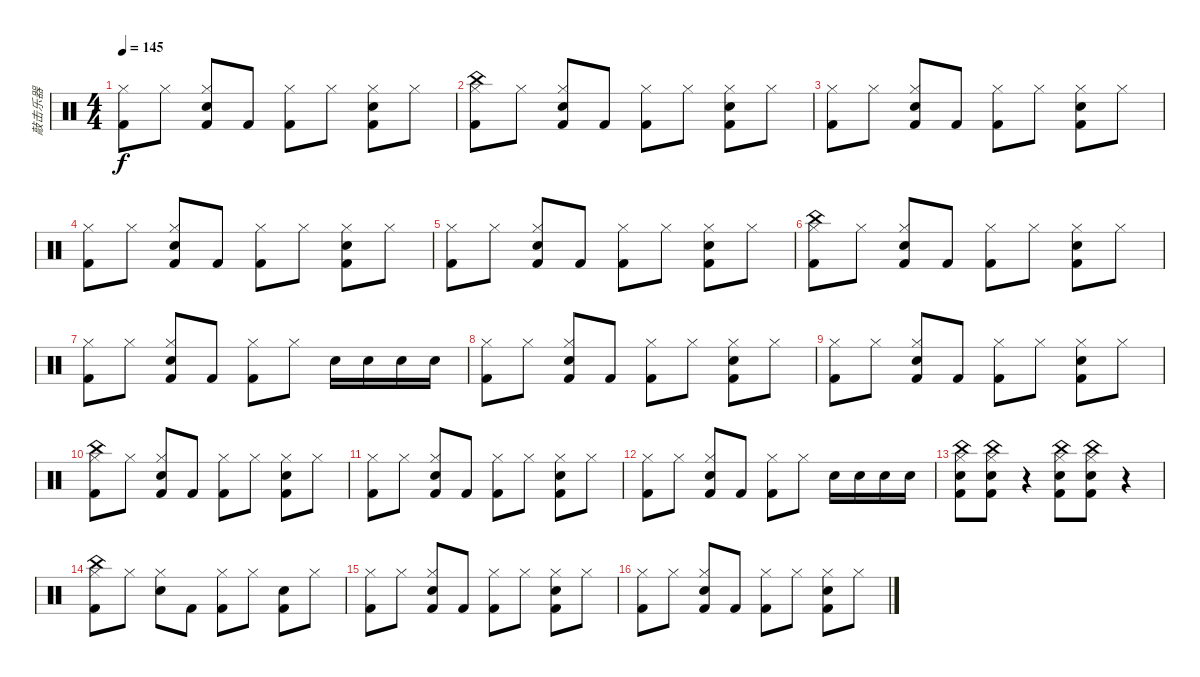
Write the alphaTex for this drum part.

\track ("敲击乐器" "敲击乐器") {instrument percussion}
\staff {score}
\articulation defaults
\ts (4 4)
\tempo 145
\clef neutral
\ks c
("Kick (hit) 2" "Hi-Hat (closed)").8{dy f} "Hi-Hat (closed)".8 ("Electric Snare (hit)" "Kick (hit) 2" "Hi-Hat (closed)").8 "Kick (hit) 2".8 ("Kick (hit) 2" "Hi-Hat (closed)").8 "Hi-Hat (closed)".8 ("Electric Snare (hit)" "Kick (hit) 2" "Hi-Hat (closed)").8 "Hi-Hat (closed)".8 |
("Kick (hit) 2" "Hi-Hat (closed)" "China (hit)").8 "Hi-Hat (closed)".8 ("Electric Snare (hit)" "Kick (hit) 2" "Hi-Hat (closed)").8 "Kick (hit) 2".8 ("Kick (hit) 2" "Hi-Hat (closed)").8 "Hi-Hat (closed)".8 ("Electric Snare (hit)" "Kick (hit) 2" "Hi-Hat (closed)").8 "Hi-Hat (closed)".8 |
("Kick (hit) 2" "Hi-Hat (closed)").8 "Hi-Hat (closed)".8 ("Electric Snare (hit)" "Kick (hit) 2" "Hi-Hat (closed)").8 "Kick (hit) 2".8 ("Kick (hit) 2" "Hi-Hat (closed)").8 "Hi-Hat (closed)".8 ("Electric Snare (hit)" "Kick (hit) 2" "Hi-Hat (closed)").8 "Hi-Hat (closed)".8 |
("Kick (hit) 2" "Hi-Hat (closed)").8 "Hi-Hat (closed)".8 ("Electric Snare (hit)" "Kick (hit) 2" "Hi-Hat (closed)").8 "Kick (hit) 2".8 ("Kick (hit) 2" "Hi-Hat (closed)").8 "Hi-Hat (closed)".8 ("Electric Snare (hit)" "Kick (hit) 2" "Hi-Hat (closed)").8 "Hi-Hat (closed)".8 |
("Kick (hit) 2" "Hi-Hat (closed)").8 "Hi-Hat (closed)".8 ("Electric Snare (hit)" "Kick (hit) 2" "Hi-Hat (closed)").8 "Kick (hit) 2".8 ("Kick (hit) 2" "Hi-Hat (closed)").8 "Hi-Hat (closed)".8 ("Electric Snare (hit)" "Kick (hit) 2" "Hi-Hat (closed)").8 "Hi-Hat (closed)".8 |
("Kick (hit) 2" "Hi-Hat (closed)" "China (hit)").8 "Hi-Hat (closed)".8 ("Electric Snare (hit)" "Kick (hit) 2" "Hi-Hat (closed)").8 "Kick (hit) 2".8 ("Kick (hit) 2" "Hi-Hat (closed)").8 "Hi-Hat (closed)".8 ("Electric Snare (hit)" "Kick (hit) 2" "Hi-Hat (closed)").8 "Hi-Hat (closed)".8 |
("Kick (hit) 2" "Hi-Hat (closed)").8 "Hi-Hat (closed)".8 ("Electric Snare (hit)" "Kick (hit) 2" "Hi-Hat (closed)").8 "Kick (hit) 2".8 ("Kick (hit) 2" "Hi-Hat (closed)").8 "Hi-Hat (closed)".8 "Electric Snare (hit)".16 "Electric Snare (hit)".16 "Electric Snare (hit)".16 "Electric Snare (hit)".16 |
("Kick (hit) 2" "Hi-Hat (closed)").8 "Hi-Hat (closed)".8 ("Electric Snare (hit)" "Kick (hit) 2" "Hi-Hat (closed)").8 "Kick (hit) 2".8 ("Kick (hit) 2" "Hi-Hat (closed)").8 "Hi-Hat (closed)".8 ("Electric Snare (hit)" "Kick (hit) 2" "Hi-Hat (closed)").8 "Hi-Hat (closed)".8 |
("Kick (hit) 2" "Hi-Hat (closed)").8 "Hi-Hat (closed)".8 ("Electric Snare (hit)" "Kick (hit) 2" "Hi-Hat (closed)").8 "Kick (hit) 2".8 ("Kick (hit) 2" "Hi-Hat (closed)").8 "Hi-Hat (closed)".8 ("Electric Snare (hit)" "Kick (hit) 2" "Hi-Hat (closed)").8 "Hi-Hat (closed)".8 |
("Kick (hit) 2" "Hi-Hat (closed)" "China (hit)").8 "Hi-Hat (closed)".8 ("Electric Snare (hit)" "Kick (hit) 2" "Hi-Hat (closed)").8 "Kick (hit) 2".8 ("Kick (hit) 2" "Hi-Hat (closed)").8 "Hi-Hat (closed)".8 ("Electric Snare (hit)" "Kick (hit) 2" "Hi-Hat (closed)").8 "Hi-Hat (closed)".8 |
("Kick (hit) 2" "Hi-Hat (closed)").8 "Hi-Hat (closed)".8 ("Electric Snare (hit)" "Kick (hit) 2" "Hi-Hat (closed)").8 "Kick (hit) 2".8 ("Kick (hit) 2" "Hi-Hat (closed)").8 "Hi-Hat (closed)".8 ("Electric Snare (hit)" "Kick (hit) 2" "Hi-Hat (closed)").8 "Hi-Hat (closed)".8 |
("Kick (hit) 2" "Hi-Hat (closed)").8 "Hi-Hat (closed)".8 ("Electric Snare (hit)" "Kick (hit) 2" "Hi-Hat (closed)").8 "Kick (hit) 2".8 ("Kick (hit) 2" "Hi-Hat (closed)").8 "Hi-Hat (closed)".8 "Electric Snare (hit)".16 "Electric Snare (hit)".16 "Electric Snare (hit)".16 "Electric Snare (hit)".16 |
("Kick (hit) 2" "Electric Snare (hit)" "Hi-Hat (closed)" "China (hit)").8 ("Kick (hit) 2" "Electric Snare (hit)" "Hi-Hat (closed)" "China (hit)").8 r.4 ("Kick (hit) 2" "Electric Snare (hit)" "Hi-Hat (closed)" "China (hit)").8 ("Kick (hit) 2" "Electric Snare (hit)" "China (hit)" "Hi-Hat (closed)").8 r.4 |
("Kick (hit) 2" "Hi-Hat (closed)" "China (hit)").8 "Hi-Hat (closed)".8 ("Electric Snare (hit)" "Hi-Hat (closed)").8 "Kick (hit) 2".8 ("Kick (hit) 2" "Hi-Hat (closed)").8 "Hi-Hat (closed)".8 ("Electric Snare (hit)" "Kick (hit) 2").8 "Hi-Hat (closed)".8 |
("Kick (hit) 2" "Hi-Hat (closed)").8 "Hi-Hat (closed)".8 ("Electric Snare (hit)" "Kick (hit) 2" "Hi-Hat (closed)").8 "Kick (hit) 2".8 ("Kick (hit) 2" "Hi-Hat (closed)").8 "Hi-Hat (closed)".8 ("Electric Snare (hit)" "Kick (hit) 2" "Hi-Hat (closed)").8 "Hi-Hat (closed)".8 |
("Kick (hit) 2" "Hi-Hat (closed)").8 "Hi-Hat (closed)".8 ("Electric Snare (hit)" "Kick (hit) 2" "Hi-Hat (closed)").8 "Kick (hit) 2".8 ("Kick (hit) 2" "Hi-Hat (closed)").8 "Hi-Hat (closed)".8 ("Electric Snare (hit)" "Kick (hit) 2" "Hi-Hat (closed)").8 "Hi-Hat (closed)".8
